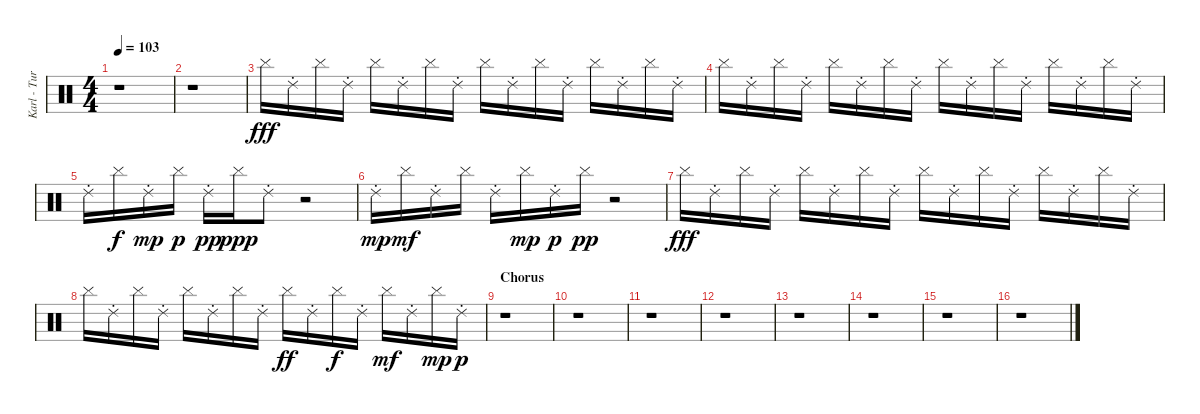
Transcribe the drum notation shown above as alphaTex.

\track ("Karl - Turntables" "Karl - Tur") {instrument percussion}
\staff {score}
\articulation defaults
\ts (4 4)
\tempo 103
\clef neutral
\ks c
r.1{dy p} |
r.1 |
"Cymbal (hit)".16{dy fff} "Ride (choke) 2".16 "Cymbal (hit)".16 "Ride (choke) 2".16 "Cymbal (hit)".16 "Ride (choke) 2".16 "Cymbal (hit)".16 "Ride (choke) 2".16 "Cymbal (hit)".16 "Ride (choke) 2".16 "Cymbal (hit)".16 "Ride (choke) 2".16 "Cymbal (hit)".16 "Ride (choke) 2".16 "Cymbal (hit)".16 "Ride (choke) 2".16 |
"Cymbal (hit)".16 "Ride (choke) 2".16 "Cymbal (hit)".16 "Ride (choke) 2".16 "Cymbal (hit)".16 "Ride (choke) 2".16 "Cymbal (hit)".16 "Ride (choke) 2".16 "Cymbal (hit)".16 "Ride (choke) 2".16 "Cymbal (hit)".16 "Ride (choke) 2".16 "Cymbal (hit)".16 "Ride (choke) 2".16 "Cymbal (hit)".16 "Ride (choke) 2".16 |
"Ride (choke) 2".16 "Cymbal (hit)".16{dy f} "Ride (choke) 2".16{dy mp} "Cymbal (hit)".16{dy p} "Ride (choke) 2".16{dy pp} "Cymbal (hit)".16{dy ppp} "Ride (choke) 2".8 r.2 |
"Ride (choke) 2".16{dy mp} "Cymbal (hit)".16{dy mf} "Ride (choke) 2".16 "Cymbal (hit)".16 "Ride (choke) 2".16 "Cymbal (hit)".16{dy mp} "Ride (choke) 2".16{dy p} "Cymbal (hit)".16{dy pp} r.2 |
"Cymbal (hit)".16{dy fff} "Ride (choke) 2".16 "Cymbal (hit)".16 "Ride (choke) 2".16 "Cymbal (hit)".16 "Ride (choke) 2".16 "Cymbal (hit)".16 "Ride (choke) 2".16 "Cymbal (hit)".16 "Ride (choke) 2".16 "Cymbal (hit)".16 "Ride (choke) 2".16 "Cymbal (hit)".16 "Ride (choke) 2".16 "Cymbal (hit)".16 "Ride (choke) 2".16 |
"Cymbal (hit)".16 "Ride (choke) 2".16 "Cymbal (hit)".16 "Ride (choke) 2".16 "Cymbal (hit)".16 "Ride (choke) 2".16 "Cymbal (hit)".16 "Ride (choke) 2".16 "Cymbal (hit)".16{dy ff} "Ride (choke) 2".16 "Cymbal (hit)".16{dy f} "Ride (choke) 2".16 "Cymbal (hit)".16{dy mf} "Ride (choke) 2".16 "Cymbal (hit)".16{dy mp} "Ride (choke) 2".16{dy p} |
\section ("" "Chorus")
r.1 |
r.1 |
r.1 |
r.1 |
r.1 |
r.1 |
r.1 |
r.1
